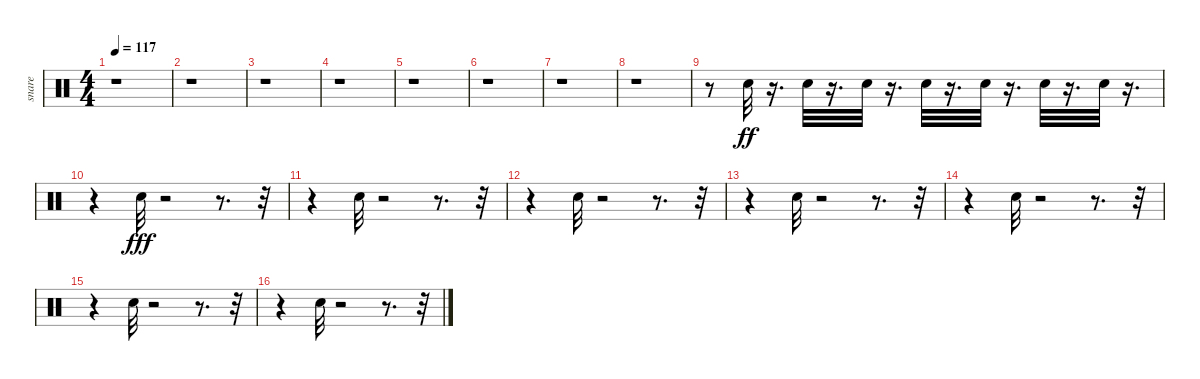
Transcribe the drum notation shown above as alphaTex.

\track ("snare" "snare") {instrument percussion}
\staff {score}
\articulation defaults
\ts (4 4)
\tempo 117
\clef neutral
\ks c
r.1{dy ff} |
r.1 |
r.1 |
r.1 |
r.1 |
r.1 |
r.1 |
r.1 |
r.8 "Snare (hit) 2".32 r.16{d} "Snare (hit) 2".32 r.16{d} "Snare (hit) 2".32 r.16{d} "Snare (hit) 2".32 r.16{d} "Snare (hit) 2".32 r.16{d} "Snare (hit) 2".32 r.16{d} "Snare (hit) 2".32 r.16{d} |
r.4 "Snare (hit) 2".32{dy fff} r.2 r.8{d} r.32 |
r.4 "Snare (hit) 2".32 r.2 r.8{d} r.32 |
r.4 "Snare (hit) 2".32 r.2 r.8{d} r.32 |
r.4 "Snare (hit) 2".32 r.2 r.8{d} r.32 |
r.4 "Snare (hit) 2".32 r.2 r.8{d} r.32 |
r.4 "Snare (hit) 2".32 r.2 r.8{d} r.32 |
r.4 "Snare (hit) 2".32 r.2 r.8{d} r.32
